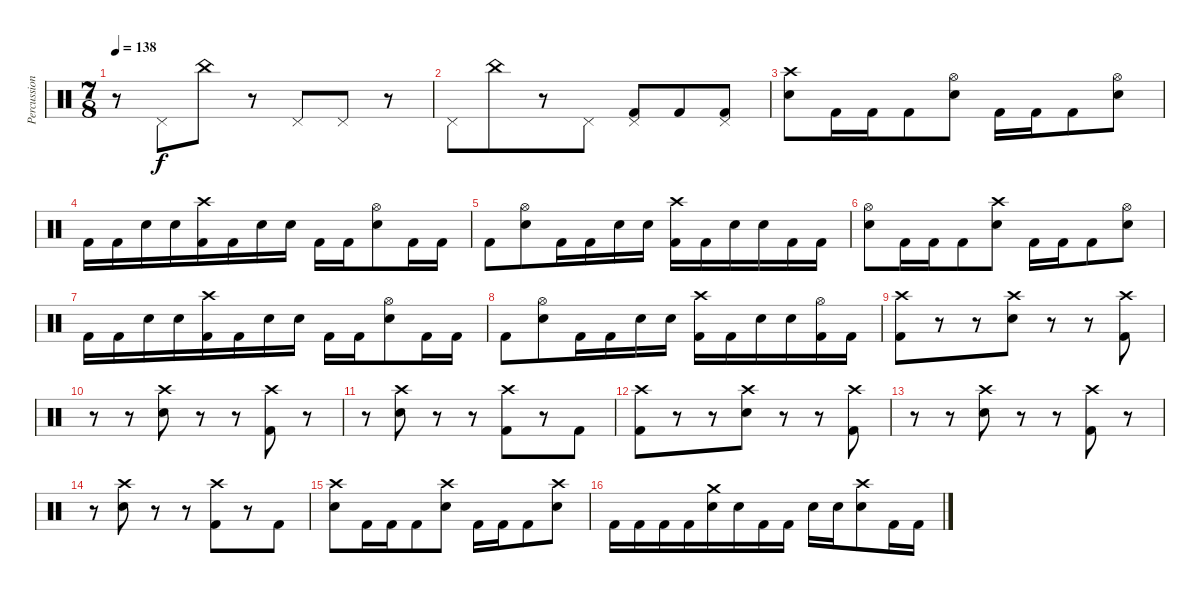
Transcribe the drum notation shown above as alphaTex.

\track ("Percussion" "Percussion") {instrument percussion}
\staff {score}
\articulation defaults
\ts (7 8)
\tempo 138
\clef neutral
\ks c
r.8{dy f} "Pedal Hi-Hat (hit)".8 "China (hit)".8 r.8 "Pedal Hi-Hat (hit)".8 "Pedal Hi-Hat (hit)".8 r.8 |
"Pedal Hi-Hat (hit)".8 "China (hit)".8 r.8 "Pedal Hi-Hat (hit)".8 ("Pedal Hi-Hat (hit)" "Kick (hit) 2").8 "Kick (hit) 2".8 ("Pedal Hi-Hat (hit)" "Kick (hit) 2").8 |
("Crash high (hit)" "Electric Snare (hit)").8 "Kick (hit) 2".16 "Kick (hit) 2".16 "Kick (hit) 2".8 ("Hi-Hat (open)" "Electric Snare (hit)").8 "Kick (hit) 2".16 "Kick (hit) 2".16 "Kick (hit) 2".8 ("Hi-Hat (open)" "Electric Snare (hit)").8 |
"Kick (hit) 2".16 "Kick (hit) 2".16 "Electric Snare (hit)".16 "Electric Snare (hit)".16 ("Crash high (hit)" "Kick (hit) 2").16 "Kick (hit) 2".16 "Electric Snare (hit)".16 "Electric Snare (hit)".16 "Kick (hit) 2".16 "Kick (hit) 2".16 ("Hi-Hat (open)" "Electric Snare (hit)").8 "Kick (hit) 2".16 "Kick (hit) 2".16 |
"Kick (hit) 2".8 ("Hi-Hat (open)" "Electric Snare (hit)").8 "Kick (hit) 2".16 "Kick (hit) 2".16 "Electric Snare (hit)".16 "Electric Snare (hit)".16 ("Crash high (hit)" "Kick (hit) 2").16 "Kick (hit) 2".16 "Electric Snare (hit)".16 "Electric Snare (hit)".16 "Kick (hit) 2".16 "Kick (hit) 2".16 |
("Hi-Hat (open)" "Electric Snare (hit)").8 "Kick (hit) 2".16 "Kick (hit) 2".16 "Kick (hit) 2".8 ("Crash high (hit)" "Electric Snare (hit)").8 "Kick (hit) 2".16 "Kick (hit) 2".16 "Kick (hit) 2".8 ("Hi-Hat (open)" "Electric Snare (hit)").8 |
"Kick (hit) 2".16 "Kick (hit) 2".16 "Electric Snare (hit)".16 "Electric Snare (hit)".16 ("Crash high (hit)" "Kick (hit) 2").16 "Kick (hit) 2".16 "Electric Snare (hit)".16 "Electric Snare (hit)".16 "Kick (hit) 2".16 "Kick (hit) 2".16 ("Hi-Hat (open)" "Electric Snare (hit)").8 "Kick (hit) 2".16 "Kick (hit) 2".16 |
"Kick (hit) 2".8 ("Hi-Hat (open)" "Electric Snare (hit)").8 "Kick (hit) 2".16 "Kick (hit) 2".16 "Electric Snare (hit)".16 "Electric Snare (hit)".16 ("Crash high (hit)" "Kick (hit) 2").16 "Kick (hit) 2".16 "Electric Snare (hit)".16 "Electric Snare (hit)".16 ("Hi-Hat (open)" "Kick (hit) 2").16 "Kick (hit) 2".16 |
("Crash high (hit)" "Kick (hit) 2").8 r.8 r.8 ("Crash high (hit)" "Electric Snare (hit)").8 r.8 r.8 ("Crash high (hit)" "Kick (hit) 2").8 |
r.8 r.8 ("Crash high (hit)" "Electric Snare (hit)").8 r.8 r.8 ("Crash high (hit)" "Kick (hit) 2").8 r.8 |
r.8 ("Crash high (hit)" "Electric Snare (hit)").8 r.8 r.8 ("Crash high (hit)" "Kick (hit) 2").8 r.8 "Kick (hit) 2".8 |
("Crash high (hit)" "Kick (hit) 2").8 r.8 r.8 ("Crash high (hit)" "Electric Snare (hit)").8 r.8 r.8 ("Crash high (hit)" "Kick (hit) 2").8 |
r.8 r.8 ("Crash high (hit)" "Electric Snare (hit)").8 r.8 r.8 ("Crash high (hit)" "Kick (hit) 2").8 r.8 |
r.8 ("Crash high (hit)" "Electric Snare (hit)").8 r.8 r.8 ("Crash high (hit)" "Kick (hit) 2").8 r.8 "Kick (hit) 2".8 |
("Crash high (hit)" "Electric Snare (hit)").8 "Kick (hit) 2".16 "Kick (hit) 2".16 "Kick (hit) 2".8 ("Crash high (hit)" "Electric Snare (hit)").8 "Kick (hit) 2".16 "Kick (hit) 2".16 "Kick (hit) 2".8 ("Crash high (hit)" "Electric Snare (hit)").8 |
"Kick (hit) 2".16 "Kick (hit) 2".16 "Kick (hit) 2".16 "Kick (hit) 2".16 ("Crash medium (hit)" "Electric Snare (hit)").16 "Electric Snare (hit)".16 "Kick (hit) 2".16 "Kick (hit) 2".16 "Electric Snare (hit)".16 "Electric Snare (hit)".16 ("Crash high (hit)" "Electric Snare (hit)").8 "Kick (hit) 2".16 "Kick (hit) 2".16
